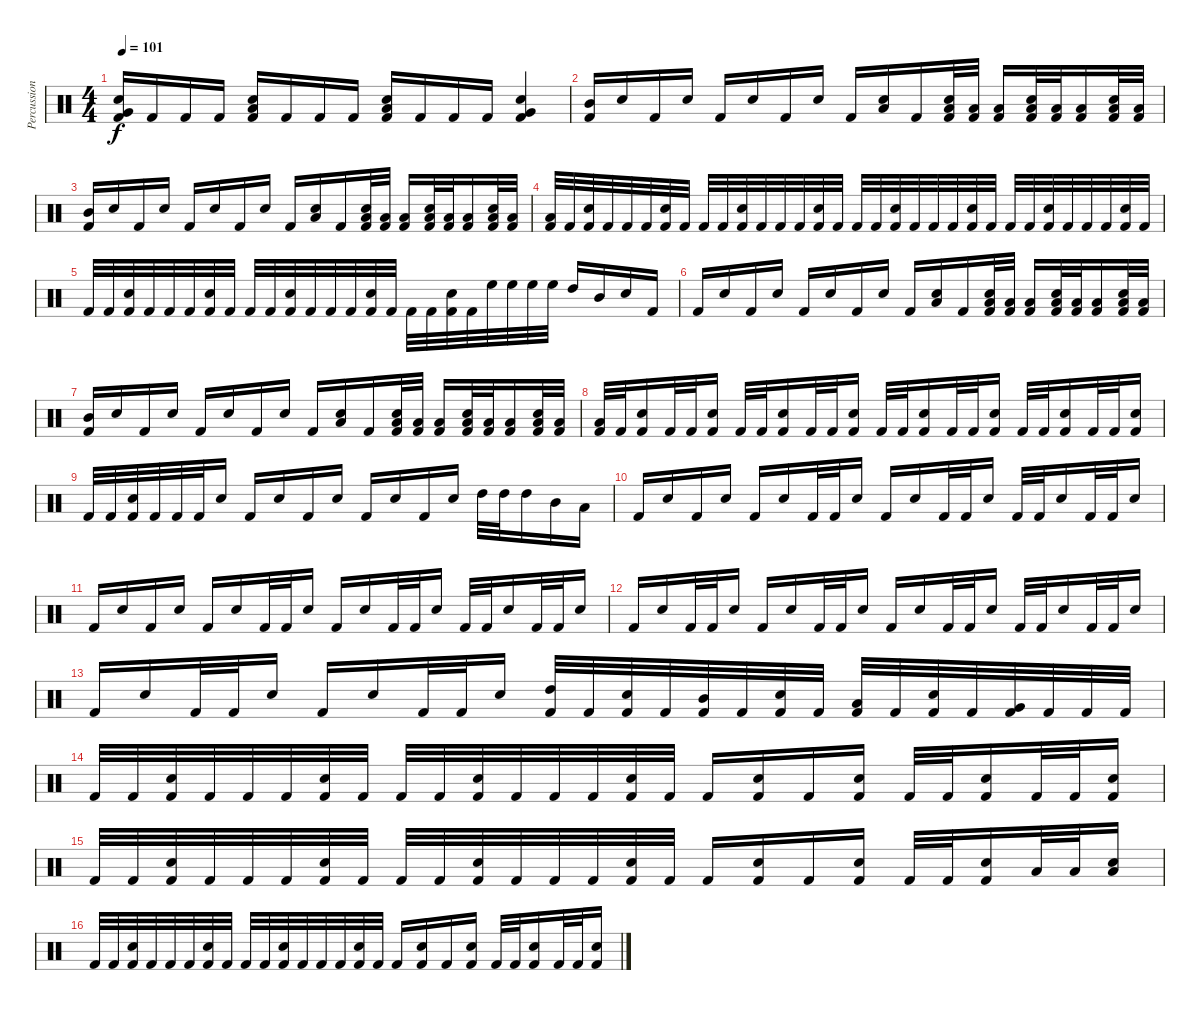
\track ("Percussion" "Percussion") {instrument percussion}
\staff {score}
\articulation defaults
\ts (4 4)
\tempo 101
\clef neutral
\ks c
("Very Low Tom (hit)" "Snare (hit) 2" "Kick (hit) 2").16{dy f} "Kick (hit) 2".16 "Kick (hit) 2".16 "Kick (hit) 2".16 ("Low Tom (hit)" "Snare (hit) 2" "Kick (hit) 2").16 "Kick (hit) 2".16 "Kick (hit) 2".16 "Kick (hit) 2".16 ("Low Floor Tom (hit)" "Snare (hit) 2" "Kick (hit) 2").16 "Kick (hit) 2".16 "Kick (hit) 2".16 "Kick (hit) 2".16 ("Very Low Tom (hit)" "Snare (hit) 2" "Kick (hit) 2").4 |
("Mid Tom (hit)" "Kick (hit) 2").16 "Snare (hit) 2".16 "Kick (hit) 2".16 "Snare (hit) 2".16 "Kick (hit) 2".16 "Snare (hit) 2".16 "Kick (hit) 2".16 "Snare (hit) 2".16 "Kick (hit) 2".16 ("Low Tom (hit)" "Snare (hit) 2").16 "Kick (hit) 2".16 ("Low Tom (hit)" "Snare (hit) 2" "Kick (hit) 2").32 ("Low Tom (hit)" "Kick (hit) 2").32 ("Low Tom (hit)" "Kick (hit) 2").16 ("Low Tom (hit)" "Snare (hit) 2" "Kick (hit) 2").32 ("Low Tom (hit)" "Kick (hit) 2").32 ("Low Tom (hit)" "Kick (hit) 2").16 ("Low Tom (hit)" "Snare (hit) 2" "Kick (hit) 2").32 ("Low Tom (hit)" "Kick (hit) 2").32 |
("Mid Tom (hit)" "Kick (hit) 2").16 "Snare (hit) 2".16 "Kick (hit) 2".16 "Snare (hit) 2".16 "Kick (hit) 2".16 "Snare (hit) 2".16 "Kick (hit) 2".16 "Snare (hit) 2".16 "Kick (hit) 2".16 ("Low Tom (hit)" "Snare (hit) 2").16 "Kick (hit) 2".16 ("Low Tom (hit)" "Snare (hit) 2" "Kick (hit) 2").32 ("Low Tom (hit)" "Kick (hit) 2").32 ("Low Tom (hit)" "Kick (hit) 2").16 ("Low Tom (hit)" "Snare (hit) 2" "Kick (hit) 2").32 ("Low Tom (hit)" "Kick (hit) 2").32 ("Low Tom (hit)" "Kick (hit) 2").16 ("Low Tom (hit)" "Snare (hit) 2" "Kick (hit) 2").32 ("Low Tom (hit)" "Kick (hit) 2").32 |
("Low Tom (hit)" "Kick (hit) 2").32 "Kick (hit) 2".32 ("Snare (hit) 2" "Kick (hit) 2").32 "Kick (hit) 2".32 "Kick (hit) 2".32 "Kick (hit) 2".32 ("Snare (hit) 2" "Kick (hit) 2").32 "Kick (hit) 2".32 "Kick (hit) 2".32 "Kick (hit) 2".32 ("Snare (hit) 2" "Kick (hit) 2").32 "Kick (hit) 2".32 "Kick (hit) 2".32 "Kick (hit) 2".32 ("Snare (hit) 2" "Kick (hit) 2").32 "Kick (hit) 2".32 "Kick (hit) 2".32 "Kick (hit) 2".32 ("Snare (hit) 2" "Kick (hit) 2").32 "Kick (hit) 2".32 "Kick (hit) 2".32 "Kick (hit) 2".32 ("Snare (hit) 2" "Kick (hit) 2").32 "Kick (hit) 2".32 "Kick (hit) 2".32 "Kick (hit) 2".32 ("Snare (hit) 2" "Kick (hit) 2").32 "Kick (hit) 2".32 "Kick (hit) 2".32 "Kick (hit) 2".32 ("Snare (hit) 2" "Kick (hit) 2").32 "Kick (hit) 2".32 |
"Kick (hit) 2".32 "Kick (hit) 2".32 ("Snare (hit) 2" "Kick (hit) 2").32 "Kick (hit) 2".32 "Kick (hit) 2".32 "Kick (hit) 2".32 ("Snare (hit) 2" "Kick (hit) 2").32 "Kick (hit) 2".32 "Kick (hit) 2".32 "Kick (hit) 2".32 ("Snare (hit) 2" "Kick (hit) 2").32 "Kick (hit) 2".32 "Kick (hit) 2".32 "Kick (hit) 2".32 ("Snare (hit) 2" "Kick (hit) 2").32 "Kick (hit) 2".32 "Kick (hit) 2".32 "Kick (hit) 2".32 ("Snare (hit) 2" "Kick (hit) 2").32 "Kick (hit) 2".32 "High Floor Tom (hit)".32 "High Floor Tom (hit)".32 "High Floor Tom (hit)".32 "High Floor Tom (hit)".32 "High Tom (hit)".16 "Mid Tom (hit)".16 "Snare (hit) 2".16 "Kick (hit) 2".16 |
"Kick (hit) 2".16 "Snare (hit) 2".16 "Kick (hit) 2".16 "Snare (hit) 2".16 "Kick (hit) 2".16 "Snare (hit) 2".16 "Kick (hit) 2".16 "Snare (hit) 2".16 "Kick (hit) 2".16 ("Low Tom (hit)" "Snare (hit) 2").16 "Kick (hit) 2".16 ("Low Tom (hit)" "Snare (hit) 2" "Kick (hit) 2").32 ("Low Tom (hit)" "Kick (hit) 2").32 ("Low Tom (hit)" "Kick (hit) 2").16 ("Low Tom (hit)" "Snare (hit) 2" "Kick (hit) 2").32 ("Low Tom (hit)" "Kick (hit) 2").32 ("Low Tom (hit)" "Kick (hit) 2").16 ("Low Tom (hit)" "Snare (hit) 2" "Kick (hit) 2").32 ("Low Tom (hit)" "Kick (hit) 2").32 |
("Mid Tom (hit)" "Kick (hit) 2").16 "Snare (hit) 2".16 "Kick (hit) 2".16 "Snare (hit) 2".16 "Kick (hit) 2".16 "Snare (hit) 2".16 "Kick (hit) 2".16 "Snare (hit) 2".16 "Kick (hit) 2".16 ("Low Tom (hit)" "Snare (hit) 2").16 "Kick (hit) 2".16 ("Low Tom (hit)" "Snare (hit) 2" "Kick (hit) 2").32 ("Low Tom (hit)" "Kick (hit) 2").32 ("Low Tom (hit)" "Kick (hit) 2").16 ("Low Tom (hit)" "Snare (hit) 2" "Kick (hit) 2").32 ("Low Tom (hit)" "Kick (hit) 2").32 ("Low Tom (hit)" "Kick (hit) 2").16 ("Low Tom (hit)" "Snare (hit) 2" "Kick (hit) 2").32 ("Low Tom (hit)" "Kick (hit) 2").32 |
("Low Tom (hit)" "Kick (hit) 2").32 "Kick (hit) 2".32 ("Snare (hit) 2" "Kick (hit) 2").16 "Kick (hit) 2".32 "Kick (hit) 2".32 ("Snare (hit) 2" "Kick (hit) 2").16 "Kick (hit) 2".32 "Kick (hit) 2".32 ("Snare (hit) 2" "Kick (hit) 2").16 "Kick (hit) 2".32 "Kick (hit) 2".32 ("Snare (hit) 2" "Kick (hit) 2").16 "Kick (hit) 2".32 "Kick (hit) 2".32 ("Snare (hit) 2" "Kick (hit) 2").16 "Kick (hit) 2".32 "Kick (hit) 2".32 ("Snare (hit) 2" "Kick (hit) 2").16 "Kick (hit) 2".32 "Kick (hit) 2".32 ("Snare (hit) 2" "Kick (hit) 2").16 "Kick (hit) 2".32 "Kick (hit) 2".32 ("Snare (hit) 2" "Kick (hit) 2").16 |
"Kick (hit) 2".32 "Kick (hit) 2".32 ("Snare (hit) 2" "Kick (hit) 2").32 "Kick (hit) 2".32 "Kick (hit) 2".32 "Kick (hit) 2".32 "Snare (hit) 2".16 "Kick (hit) 2".16 "Snare (hit) 2".16 "Kick (hit) 2".16 "Snare (hit) 2".16 "Kick (hit) 2".16 "Snare (hit) 2".16 "Kick (hit) 2".16 "Snare (hit) 2".16 "High Tom (hit)".32 "High Tom (hit)".32 "High Tom (hit)".16 "Mid Tom (hit)".16 "Low Tom (hit)".16 |
"Kick (hit) 2".16 "Snare (hit) 2".16 "Kick (hit) 2".16 "Snare (hit) 2".16 "Kick (hit) 2".16 "Snare (hit) 2".16 "Kick (hit) 2".32 "Kick (hit) 2".32 "Snare (hit) 2".16 "Kick (hit) 2".16 "Snare (hit) 2".16 "Kick (hit) 2".32 "Kick (hit) 2".32 "Snare (hit) 2".16 "Kick (hit) 2".32 "Kick (hit) 2".32 "Snare (hit) 2".16 "Kick (hit) 2".32 "Kick (hit) 2".32 "Snare (hit) 2".16 |
"Kick (hit) 2".16 "Snare (hit) 2".16 "Kick (hit) 2".16 "Snare (hit) 2".16 "Kick (hit) 2".16 "Snare (hit) 2".16 "Kick (hit) 2".32 "Kick (hit) 2".32 "Snare (hit) 2".16 "Kick (hit) 2".16 "Snare (hit) 2".16 "Kick (hit) 2".32 "Kick (hit) 2".32 "Snare (hit) 2".16 "Kick (hit) 2".32 "Kick (hit) 2".32 "Snare (hit) 2".16 "Kick (hit) 2".32 "Kick (hit) 2".32 "Snare (hit) 2".16 |
"Kick (hit) 2".16 "Snare (hit) 2".16 "Kick (hit) 2".32 "Kick (hit) 2".32 "Snare (hit) 2".16 "Kick (hit) 2".16 "Snare (hit) 2".16 "Kick (hit) 2".32 "Kick (hit) 2".32 "Snare (hit) 2".16 "Kick (hit) 2".16 "Snare (hit) 2".16 "Kick (hit) 2".32 "Kick (hit) 2".32 "Snare (hit) 2".16 "Kick (hit) 2".32 "Kick (hit) 2".32 "Snare (hit) 2".16 "Kick (hit) 2".32 "Kick (hit) 2".32 "Snare (hit) 2".16 |
"Kick (hit) 2".16 "Snare (hit) 2".16 "Kick (hit) 2".32 "Kick (hit) 2".32 "Snare (hit) 2".16 "Kick (hit) 2".16 "Snare (hit) 2".16 "Kick (hit) 2".32 "Kick (hit) 2".32 "Snare (hit) 2".16 ("High Tom (hit)" "Kick (hit) 2").32 "Kick (hit) 2".32 ("Snare (hit) 2" "Kick (hit) 2").32 "Kick (hit) 2".32 ("Mid Tom (hit)" "Kick (hit) 2").32 "Kick (hit) 2".32 ("Snare (hit) 2" "Kick (hit) 2").32 "Kick (hit) 2".32 ("Low Tom (hit)" "Kick (hit) 2").32 "Kick (hit) 2".32 ("Snare (hit) 2" "Kick (hit) 2").32 "Kick (hit) 2".32 ("Very Low Tom (hit)" "Kick (hit) 2").32 "Kick (hit) 2".32 "Kick (hit) 2".32 "Kick (hit) 2".32 |
"Kick (hit) 2".32 "Kick (hit) 2".32 ("Snare (hit) 2" "Kick (hit) 2").32 "Kick (hit) 2".32 "Kick (hit) 2".32 "Kick (hit) 2".32 ("Snare (hit) 2" "Kick (hit) 2").32 "Kick (hit) 2".32 "Kick (hit) 2".32 "Kick (hit) 2".32 ("Snare (hit) 2" "Kick (hit) 2").32 "Kick (hit) 2".32 "Kick (hit) 2".32 "Kick (hit) 2".32 ("Snare (hit) 2" "Kick (hit) 2").32 "Kick (hit) 2".32 "Kick (hit) 2".16 ("Snare (hit) 2" "Kick (hit) 2").16 "Kick (hit) 2".16 ("Snare (hit) 2" "Kick (hit) 2").16 "Kick (hit) 2".32 "Kick (hit) 2".32 ("Snare (hit) 2" "Kick (hit) 2").16 "Kick (hit) 2".32 "Kick (hit) 2".32 ("Snare (hit) 2" "Kick (hit) 2").16 |
"Kick (hit) 2".32 "Kick (hit) 2".32 ("Snare (hit) 2" "Kick (hit) 2").32 "Kick (hit) 2".32 "Kick (hit) 2".32 "Kick (hit) 2".32 ("Snare (hit) 2" "Kick (hit) 2").32 "Kick (hit) 2".32 "Kick (hit) 2".32 "Kick (hit) 2".32 ("Snare (hit) 2" "Kick (hit) 2").32 "Kick (hit) 2".32 "Kick (hit) 2".32 "Kick (hit) 2".32 ("Snare (hit) 2" "Kick (hit) 2").32 "Kick (hit) 2".32 "Kick (hit) 2".16 ("Snare (hit) 2" "Kick (hit) 2").16 "Kick (hit) 2".16 ("Snare (hit) 2" "Kick (hit) 2").16 "Kick (hit) 2".32 "Kick (hit) 2".32 ("Snare (hit) 2" "Kick (hit) 2").16 "Low Tom (hit)".32 "Low Tom (hit)".32 ("Low Tom (hit)" "Snare (hit) 2").16 |
"Kick (hit) 2".32 "Kick (hit) 2".32 ("Snare (hit) 2" "Kick (hit) 2").32 "Kick (hit) 2".32 "Kick (hit) 2".32 "Kick (hit) 2".32 ("Snare (hit) 2" "Kick (hit) 2").32 "Kick (hit) 2".32 "Kick (hit) 2".32 "Kick (hit) 2".32 ("Snare (hit) 2" "Kick (hit) 2").32 "Kick (hit) 2".32 "Kick (hit) 2".32 "Kick (hit) 2".32 ("Snare (hit) 2" "Kick (hit) 2").32 "Kick (hit) 2".32 "Kick (hit) 2".16 ("Snare (hit) 2" "Kick (hit) 2").16 "Kick (hit) 2".16 ("Snare (hit) 2" "Kick (hit) 2").16 "Kick (hit) 2".32 "Kick (hit) 2".32 ("Snare (hit) 2" "Kick (hit) 2").16 "Kick (hit) 2".32 "Kick (hit) 2".32 ("Snare (hit) 2" "Kick (hit) 2").16
